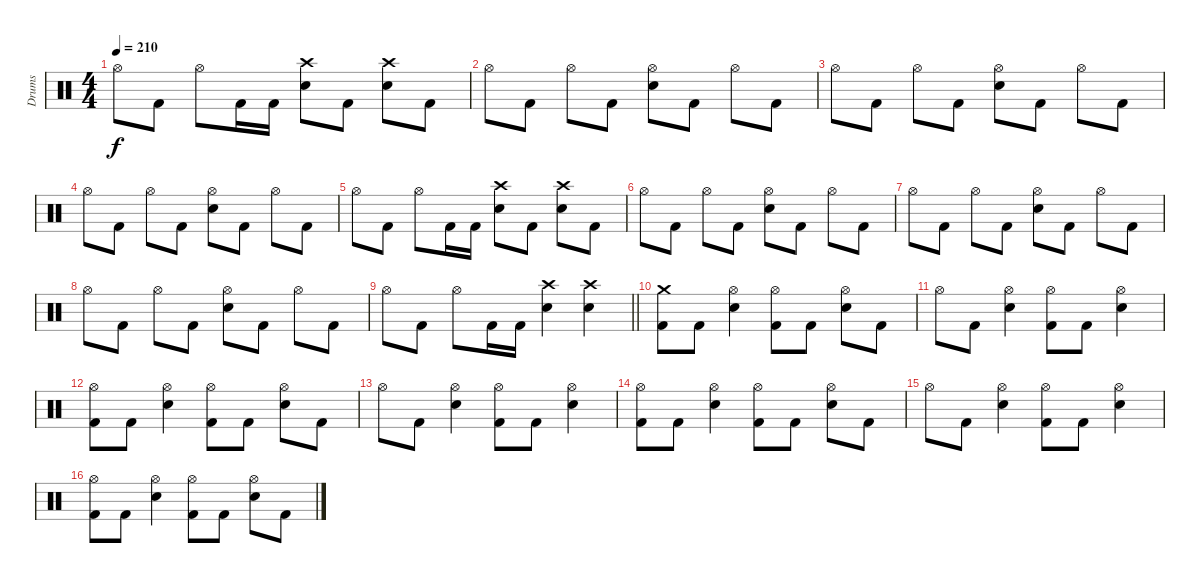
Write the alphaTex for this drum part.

\track ("Drums" "Drums") {instrument percussion}
\staff {score}
\articulation defaults
\ts (4 4)
\tempo 210
\clef neutral
\ks c "Hi-Hat (open)".8{dy f} "Kick (hit) 2".8 "Hi-Hat (open)".8 "Kick (hit) 2".16 "Kick (hit) 2".16
("Crash high (hit)" "Snare (hit) 2").8 "Kick (hit) 2".8 ("Crash high (hit)" "Snare (hit) 2").8 "Kick (hit) 2".8 |
"Hi-Hat (open)".8 "Kick (hit) 2".8 "Hi-Hat (open)".8 "Kick (hit) 2".8 ("Hi-Hat (open)" "Snare (hit) 2").8 "Kick (hit) 2".8 "Hi-Hat (open)".8 "Kick (hit) 2".8 |
"Hi-Hat (open)".8 "Kick (hit) 2".8 "Hi-Hat (open)".8 "Kick (hit) 2".8 ("Hi-Hat (open)" "Snare (hit) 2").8 "Kick (hit) 2".8 "Hi-Hat (open)".8 "Kick (hit) 2".8 |
"Hi-Hat (open)".8 "Kick (hit) 2".8 "Hi-Hat (open)".8 "Kick (hit) 2".8 ("Hi-Hat (open)" "Snare (hit) 2").8 "Kick (hit) 2".8 "Hi-Hat (open)".8 "Kick (hit) 2".8 |
"Hi-Hat (open)".8 "Kick (hit) 2".8 "Hi-Hat (open)".8 "Kick (hit) 2".16 "Kick (hit) 2".16 ("Crash high (hit)" "Snare (hit) 2").8 "Kick (hit) 2".8 ("Crash high (hit)" "Snare (hit) 2").8 "Kick (hit) 2".8 |
"Hi-Hat (open)".8 "Kick (hit) 2".8 "Hi-Hat (open)".8 "Kick (hit) 2".8 ("Hi-Hat (open)" "Snare (hit) 2").8 "Kick (hit) 2".8 "Hi-Hat (open)".8 "Kick (hit) 2".8 |
"Hi-Hat (open)".8 "Kick (hit) 2".8 "Hi-Hat (open)".8 "Kick (hit) 2".8 ("Hi-Hat (open)" "Snare (hit) 2").8 "Kick (hit) 2".8 "Hi-Hat (open)".8 "Kick (hit) 2".8 |
"Hi-Hat (open)".8 "Kick (hit) 2".8 "Hi-Hat (open)".8 "Kick (hit) 2".8 ("Hi-Hat (open)" "Snare (hit) 2").8 "Kick (hit) 2".8 "Hi-Hat (open)".8 "Kick (hit) 2".8 |
\barLineRight lightlight "Hi-Hat (open)".8 "Kick (hit) 2".8 "Hi-Hat (open)".8 "Kick (hit) 2".16 "Kick (hit) 2".16
("Crash high (hit)" "Snare (hit) 2").4 ("Crash high (hit)" "Snare (hit) 2").4 |
("Crash medium (hit)" "Kick (hit) 2").8 "Kick (hit) 2".8 ("Hi-Hat (open)" "Snare (hit) 2").4 ("Hi-Hat (open)" "Kick (hit) 2").8 "Kick (hit) 2".8 ("Hi-Hat (open)" "Snare (hit) 2").8 "Kick (hit) 2".8 |
"Hi-Hat (open)".8 "Kick (hit) 2".8 ("Hi-Hat (open)" "Snare (hit) 2").4 ("Hi-Hat (open)" "Kick (hit) 2").8 "Kick (hit) 2".8 ("Hi-Hat (open)" "Snare (hit) 2").4 |
("Hi-Hat (open)" "Kick (hit) 2").8 "Kick (hit) 2".8 ("Hi-Hat (open)" "Snare (hit) 2").4 ("Hi-Hat (open)" "Kick (hit) 2").8 "Kick (hit) 2".8 ("Hi-Hat (open)" "Snare (hit) 2").8 "Kick (hit) 2".8 |
"Hi-Hat (open)".8 "Kick (hit) 2".8 ("Hi-Hat (open)" "Snare (hit) 2").4 ("Hi-Hat (open)" "Kick (hit) 2").8 "Kick (hit) 2".8 ("Hi-Hat (open)" "Snare (hit) 2").4 |
("Hi-Hat (open)" "Kick (hit) 2").8 "Kick (hit) 2".8 ("Hi-Hat (open)" "Snare (hit) 2").4 ("Hi-Hat (open)" "Kick (hit) 2").8 "Kick (hit) 2".8 ("Hi-Hat (open)" "Snare (hit) 2").8 "Kick (hit) 2".8 |
"Hi-Hat (open)".8 "Kick (hit) 2".8 ("Hi-Hat (open)" "Snare (hit) 2").4 ("Hi-Hat (open)" "Kick (hit) 2").8 "Kick (hit) 2".8 ("Hi-Hat (open)" "Snare (hit) 2").4 |
("Hi-Hat (open)" "Kick (hit) 2").8 "Kick (hit) 2".8 ("Hi-Hat (open)" "Snare (hit) 2").4 ("Hi-Hat (open)" "Kick (hit) 2").8 "Kick (hit) 2".8 ("Hi-Hat (open)" "Snare (hit) 2").8 "Kick (hit) 2".8
